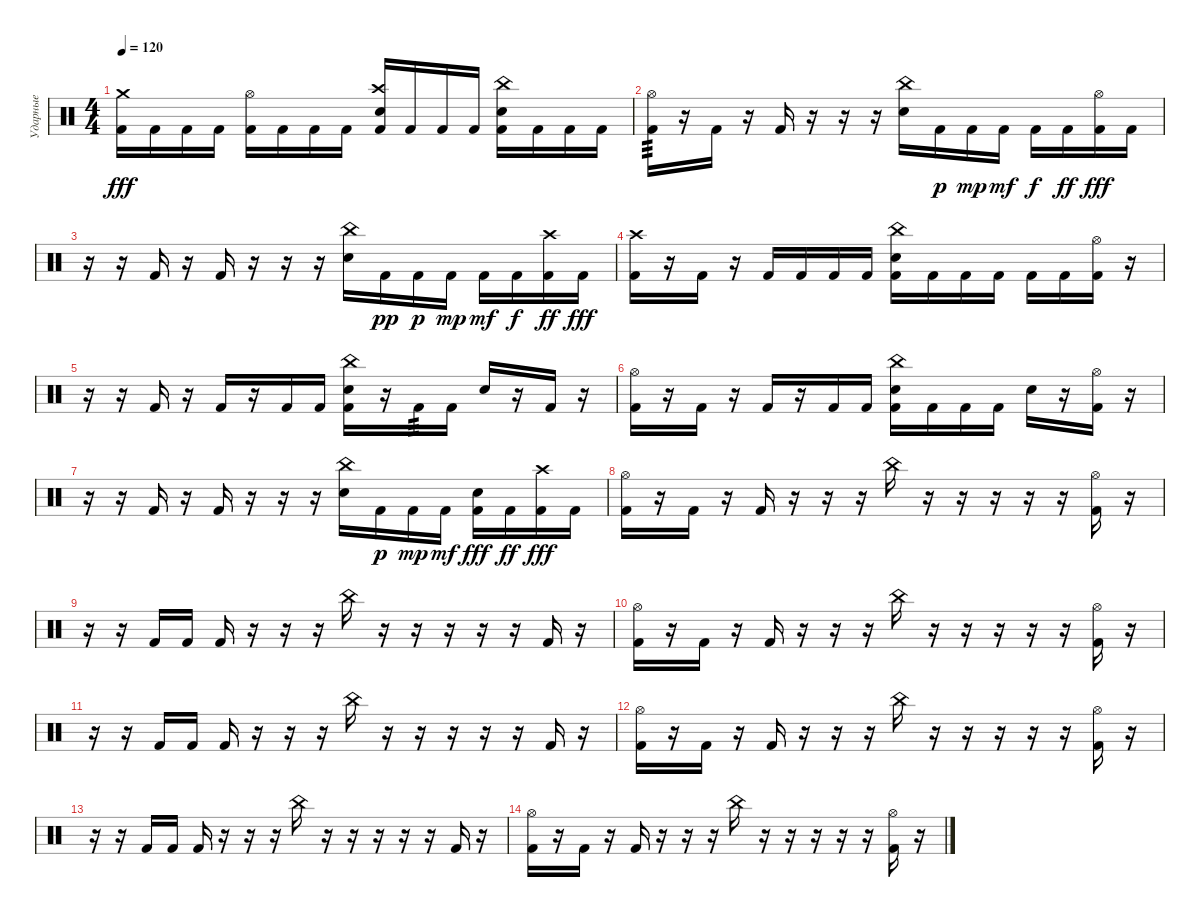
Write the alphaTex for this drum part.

\track ("Ударные" "Ударные") {instrument percussion}
\staff {score}
\articulation defaults
\ts (4 4)
\tempo 120
\clef neutral
\ks c
("Crash medium (hit)" "Kick (hit) 2").16{dy fff} "Kick (hit) 2".16 "Kick (hit) 2".16 "Kick (hit) 2".16 ("Hi-Hat (open)" "Kick (hit) 2").16 "Kick (hit) 2".16 "Kick (hit) 2".16 "Kick (hit) 2".16 ("Crash high (hit)" "Snare (hit) 2" "Kick (hit) 2").16 "Kick (hit) 2".16 "Kick (hit) 2".16 "Kick (hit) 2".16 ("China (hit)" "Snare (hit) 2" "Kick (hit) 2").16 "Kick (hit) 2".16 "Kick (hit) 2".16 "Kick (hit) 2".16 |
("Hi-Hat (open)" "Kick (hit) 2").16{tp 3} r.16 "Kick (hit) 2".16 r.16 "Kick (hit) 2".16 r.16 r.16 r.16 ("China (hit)" "Snare (hit) 2").16 "Kick (hit) 2".16{dy p} "Kick (hit) 2".16{dy mp} "Kick (hit) 2".16{dy mf} "Kick (hit) 2".16{dy f} "Kick (hit) 2".16{dy ff} ("Hi-Hat (open)" "Kick (hit) 2").16{dy fff} "Kick (hit) 2".16 |
r.16 r.16 "Kick (hit) 2".16 r.16 "Kick (hit) 2".16 r.16 r.16 r.16 ("China (hit)" "Snare (hit) 2").16 "Kick (hit) 2".16{dy pp} "Kick (hit) 2".16{dy p} "Kick (hit) 2".16{dy mp} "Kick (hit) 2".16{dy mf} "Kick (hit) 2".16{dy f} ("Crash high (hit)" "Kick (hit) 2").16{dy ff} "Kick (hit) 2".16{dy fff} |
("Crash high (hit)" "Kick (hit) 2").16 r.16 "Kick (hit) 2".16 r.16 "Kick (hit) 2".16 "Kick (hit) 2".16 "Kick (hit) 2".16 "Kick (hit) 2".16 ("China (hit)" "Snare (hit) 2" "Kick (hit) 2").16 "Kick (hit) 2".16 "Kick (hit) 2".16 "Kick (hit) 2".16 "Kick (hit) 2".16 "Kick (hit) 2".16 ("Hi-Hat (open)" "Kick (hit) 2").16 r.16 |
r.16 r.16 "Kick (hit) 2".16 r.16 "Kick (hit) 2".16 r.16 "Kick (hit) 2".16 "Kick (hit) 2".16 ("China (hit)" "Snare (hit) 2" "Kick (hit) 2").16 r.16 "Kick (hit) 2".16{tp 3} "Kick (hit) 2".16 "Snare (hit) 2".16 r.16 "Kick (hit) 2".16 r.16 |
("Hi-Hat (open)" "Kick (hit) 2").16 r.16 "Kick (hit) 2".16 r.16 "Kick (hit) 2".16 r.16 "Kick (hit) 2".16 "Kick (hit) 2".16 ("China (hit)" "Snare (hit) 2" "Kick (hit) 2").16 "Kick (hit) 2".16 "Kick (hit) 2".16 "Kick (hit) 2".16 "Snare (hit) 2".16 r.16 ("Hi-Hat (open)" "Kick (hit) 2").16 r.16 |
r.16 r.16 "Kick (hit) 2".16 r.16 "Kick (hit) 2".16 r.16 r.16 r.16 ("China (hit)" "Snare (hit) 2").16 "Kick (hit) 2".16{dy p} "Kick (hit) 2".16{dy mp} "Kick (hit) 2".16{dy mf} ("Snare (hit) 2" "Kick (hit) 2").16{dy fff} "Kick (hit) 2".16{dy ff} ("Crash high (hit)" "Kick (hit) 2").16{dy fff} "Kick (hit) 2".16 |
("Hi-Hat (open)" "Kick (hit) 2").16 r.16 "Kick (hit) 2".16 r.16 "Kick (hit) 2".16 r.16 r.16 r.16 "China (hit)".16 r.16 r.16 r.16 r.16 r.16 ("Hi-Hat (open)" "Kick (hit) 2").16 r.16 |
r.16 r.16 "Kick (hit) 2".16 "Kick (hit) 2".16 "Kick (hit) 2".16 r.16 r.16 r.16 "China (hit)".16 r.16 r.16 r.16 r.16 r.16 "Kick (hit) 2".16 r.16 |
("Hi-Hat (open)" "Kick (hit) 2").16 r.16 "Kick (hit) 2".16 r.16 "Kick (hit) 2".16 r.16 r.16 r.16 "China (hit)".16 r.16 r.16 r.16 r.16 r.16 ("Hi-Hat (open)" "Kick (hit) 2").16 r.16 |
r.16 r.16 "Kick (hit) 2".16 "Kick (hit) 2".16 "Kick (hit) 2".16 r.16 r.16 r.16 "China (hit)".16 r.16 r.16 r.16 r.16 r.16 "Kick (hit) 2".16 r.16 |
("Hi-Hat (open)" "Kick (hit) 2").16{volume 2} r.16 "Kick (hit) 2".16 r.16 "Kick (hit) 2".16 r.16 r.16 r.16 "China (hit)".16 r.16 r.16 r.16 r.16 r.16 ("Hi-Hat (open)" "Kick (hit) 2").16 r.16 |
r.16 r.16 "Kick (hit) 2".16 "Kick (hit) 2".16 "Kick (hit) 2".16 r.16 r.16 r.16 "China (hit)".16 r.16 r.16 r.16 r.16 r.16 "Kick (hit) 2".16 r.16 |
("Hi-Hat (open)" "Kick (hit) 2").16 r.16 "Kick (hit) 2".16 r.16 "Kick (hit) 2".16 r.16 r.16 r.16 "China (hit)".16 r.16 r.16 r.16 r.16 r.16 ("Hi-Hat (open)" "Kick (hit) 2").16 r.16
